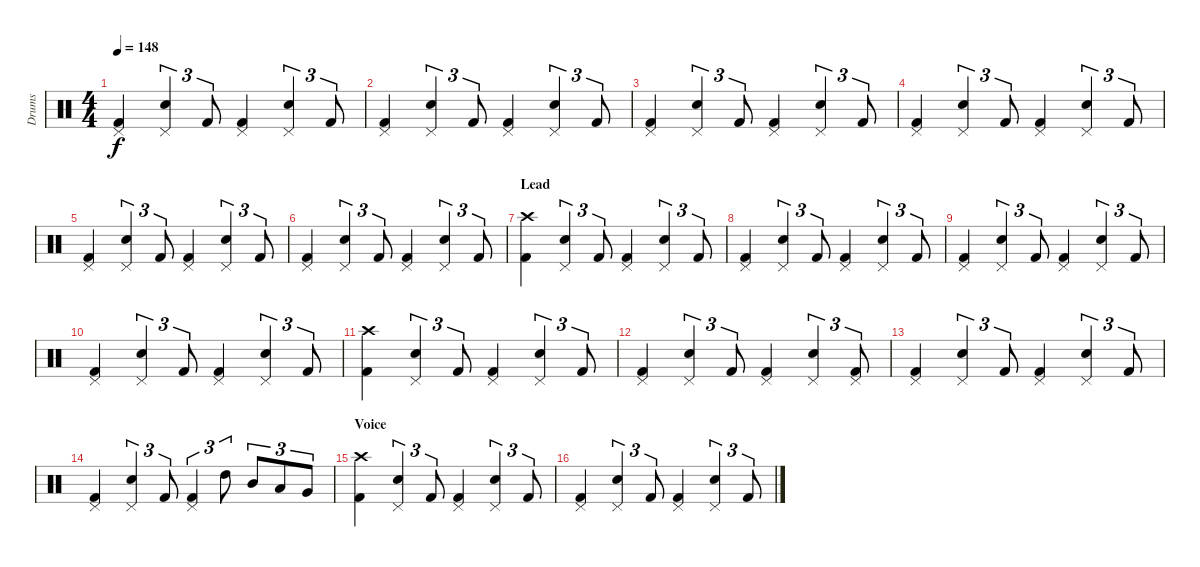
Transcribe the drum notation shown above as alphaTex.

\track ("Drums" "Drums") {instrument percussion}
\staff {score}
\articulation defaults
\ts (4 4)
\tempo 148
\clef neutral
\ks c
("Pedal Hi-Hat (hit)" "Kick (hit) 2").4{dy f} ("Pedal Hi-Hat (hit)" "Snare (hit) 2").4{tu (3 2)} "Kick (hit) 2".8{tu (3 2)} ("Pedal Hi-Hat (hit)" "Kick (hit) 2").4 ("Pedal Hi-Hat (hit)" "Snare (hit) 2").4{tu (3 2)} "Kick (hit) 2".8{tu (3 2)} |
("Pedal Hi-Hat (hit)" "Kick (hit) 2").4 ("Pedal Hi-Hat (hit)" "Snare (hit) 2").4{tu (3 2)} "Kick (hit) 2".8{tu (3 2)} ("Pedal Hi-Hat (hit)" "Kick (hit) 2").4 ("Pedal Hi-Hat (hit)" "Snare (hit) 2").4{tu (3 2)} "Kick (hit) 2".8{tu (3 2)} |
("Pedal Hi-Hat (hit)" "Kick (hit) 2").4 ("Pedal Hi-Hat (hit)" "Snare (hit) 2").4{tu (3 2)} "Kick (hit) 2".8{tu (3 2)} ("Pedal Hi-Hat (hit)" "Kick (hit) 2").4 ("Pedal Hi-Hat (hit)" "Snare (hit) 2").4{tu (3 2)} "Kick (hit) 2".8{tu (3 2)} |
("Pedal Hi-Hat (hit)" "Kick (hit) 2").4 ("Pedal Hi-Hat (hit)" "Snare (hit) 2").4{tu (3 2)} "Kick (hit) 2".8{tu (3 2)} ("Pedal Hi-Hat (hit)" "Kick (hit) 2").4 ("Pedal Hi-Hat (hit)" "Snare (hit) 2").4{tu (3 2)} "Kick (hit) 2".8{tu (3 2)} |
("Pedal Hi-Hat (hit)" "Kick (hit) 2").4 ("Pedal Hi-Hat (hit)" "Snare (hit) 2").4{tu (3 2)} "Kick (hit) 2".8{tu (3 2)} ("Pedal Hi-Hat (hit)" "Kick (hit) 2").4 ("Pedal Hi-Hat (hit)" "Snare (hit) 2").4{tu (3 2)} "Kick (hit) 2".8{tu (3 2)} |
("Pedal Hi-Hat (hit)" "Kick (hit) 2").4 ("Pedal Hi-Hat (hit)" "Snare (hit) 2").4{tu (3 2)} "Kick (hit) 2".8{tu (3 2)} ("Pedal Hi-Hat (hit)" "Kick (hit) 2").4 ("Pedal Hi-Hat (hit)" "Snare (hit) 2").4{tu (3 2)} "Kick (hit) 2".8{tu (3 2)} |
\section ("" "Lead")
("Crash high (hit)" "Kick (hit) 2").4 ("Pedal Hi-Hat (hit)" "Snare (hit) 2").4{tu (3 2)} "Kick (hit) 2".8{tu (3 2)} ("Pedal Hi-Hat (hit)" "Kick (hit) 2").4 ("Pedal Hi-Hat (hit)" "Snare (hit) 2").4{tu (3 2)} "Kick (hit) 2".8{tu (3 2)} |
("Pedal Hi-Hat (hit)" "Kick (hit) 2").4 ("Pedal Hi-Hat (hit)" "Snare (hit) 2").4{tu (3 2)} "Kick (hit) 2".8{tu (3 2)} ("Pedal Hi-Hat (hit)" "Kick (hit) 2").4 ("Pedal Hi-Hat (hit)" "Snare (hit) 2").4{tu (3 2)} "Kick (hit) 2".8{tu (3 2)} |
("Pedal Hi-Hat (hit)" "Kick (hit) 2").4 ("Pedal Hi-Hat (hit)" "Snare (hit) 2").4{tu (3 2)} "Kick (hit) 2".8{tu (3 2)} ("Pedal Hi-Hat (hit)" "Kick (hit) 2").4 ("Pedal Hi-Hat (hit)" "Snare (hit) 2").4{tu (3 2)} "Kick (hit) 2".8{tu (3 2)} |
("Pedal Hi-Hat (hit)" "Kick (hit) 2").4 ("Pedal Hi-Hat (hit)" "Snare (hit) 2").4{tu (3 2)} "Kick (hit) 2".8{tu (3 2)} ("Pedal Hi-Hat (hit)" "Kick (hit) 2").4 ("Pedal Hi-Hat (hit)" "Snare (hit) 2").4{tu (3 2)} "Kick (hit) 2".8{tu (3 2)} |
("Crash high (hit)" "Kick (hit) 2").4 ("Pedal Hi-Hat (hit)" "Snare (hit) 2").4{tu (3 2)} "Kick (hit) 2".8{tu (3 2)} ("Pedal Hi-Hat (hit)" "Kick (hit) 2").4 ("Pedal Hi-Hat (hit)" "Snare (hit) 2").4{tu (3 2)} "Kick (hit) 2".8{tu (3 2)} |
("Pedal Hi-Hat (hit)" "Kick (hit) 2").4 ("Pedal Hi-Hat (hit)" "Snare (hit) 2").4{tu (3 2)} "Kick (hit) 2".8{tu (3 2)} ("Pedal Hi-Hat (hit)" "Kick (hit) 2").4 ("Pedal Hi-Hat (hit)" "Snare (hit) 2").4{tu (3 2)} ("Pedal Hi-Hat (hit)" "Kick (hit) 2").8{tu (3 2)} |
("Pedal Hi-Hat (hit)" "Kick (hit) 2").4 ("Pedal Hi-Hat (hit)" "Snare (hit) 2").4{tu (3 2)} "Kick (hit) 2".8{tu (3 2)} ("Pedal Hi-Hat (hit)" "Kick (hit) 2").4 ("Pedal Hi-Hat (hit)" "Snare (hit) 2").4{tu (3 2)} "Kick (hit) 2".8{tu (3 2)} |
("Pedal Hi-Hat (hit)" "Kick (hit) 2").4 ("Pedal Hi-Hat (hit)" "Snare (hit) 2").4{tu (3 2)} "Kick (hit) 2".8{tu (3 2)} ("Pedal Hi-Hat (hit)" "Kick (hit) 2").4{tu (3 2)} "High Tom (hit)".8{tu (3 2)} "Mid Tom (hit)".8{tu (3 2)} "Low Tom (hit)".8{tu (3 2)} "Very Low Tom (hit)".8{tu (3 2)} |
\section ("" "Voice")
("Crash high (hit)" "Kick (hit) 2").4 ("Pedal Hi-Hat (hit)" "Snare (hit) 2").4{tu (3 2)} "Kick (hit) 2".8{tu (3 2)} ("Pedal Hi-Hat (hit)" "Kick (hit) 2").4 ("Pedal Hi-Hat (hit)" "Snare (hit) 2").4{tu (3 2)} "Kick (hit) 2".8{tu (3 2)} |
("Pedal Hi-Hat (hit)" "Kick (hit) 2").4 ("Pedal Hi-Hat (hit)" "Snare (hit) 2").4{tu (3 2)} "Kick (hit) 2".8{tu (3 2)} ("Pedal Hi-Hat (hit)" "Kick (hit) 2").4 ("Pedal Hi-Hat (hit)" "Snare (hit) 2").4{tu (3 2)} "Kick (hit) 2".8{tu (3 2)}
